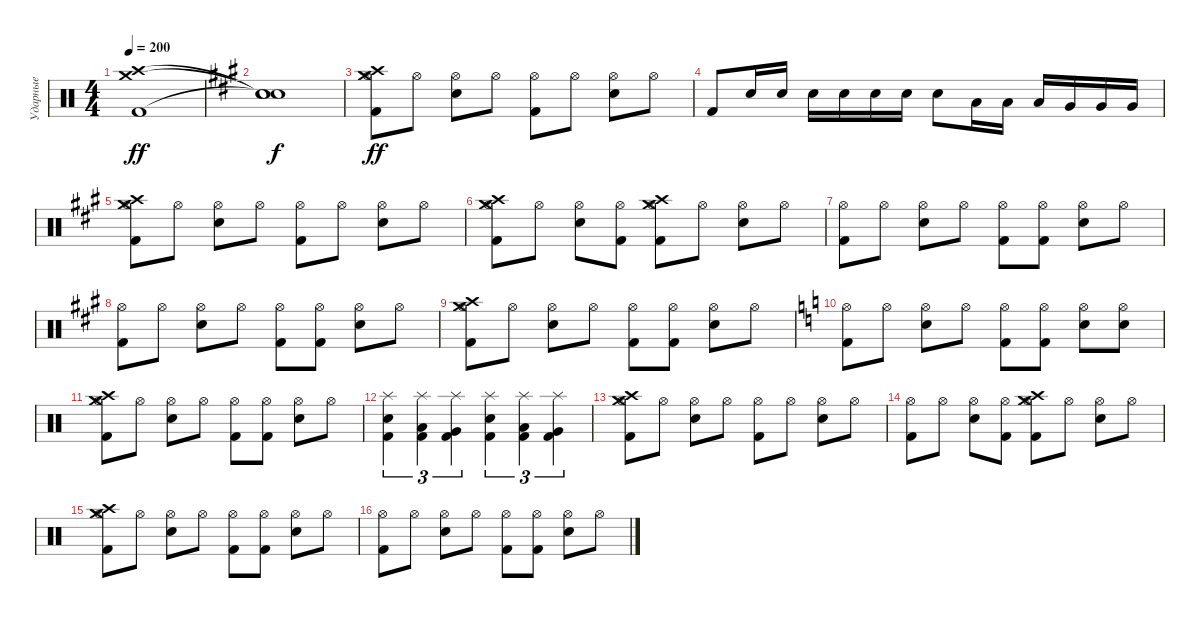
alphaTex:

\track ("Ударные" "Ударные") {instrument percussion}
\staff {score}
\articulation defaults
\ts (4 4)
\tempo 200
\clef neutral
\ks c
("Crash medium (hit)" "Crash high (hit)" "Kick (hit) 2").1{dy ff} |
\ks f#minor
("Snare (hit)"{t} "Snare (hit)"{t} "Snare (hit)"{t}).1{dy f} |
("Crash medium (hit)" "Crash high (hit)" "Hi-Hat (open)" "Kick (hit) 2").8{dy ff} "Hi-Hat (open)".8 ("Hi-Hat (open)" "Electric Snare (hit)").8 "Hi-Hat (open)".8 ("Hi-Hat (open)" "Kick (hit) 2").8 "Hi-Hat (open)".8 ("Hi-Hat (open)" "Electric Snare (hit)").8 "Hi-Hat (open)".8 |
"Kick (hit) 2".8 "Electric Snare (hit)".16 "Electric Snare (hit)".16 "Electric Snare (hit)".16 "Electric Snare (hit)".16 "Electric Snare (hit)".16 "Electric Snare (hit)".16 "Electric Snare (hit)".8 "Low Tom (hit)".16 "Low Tom (hit)".16 "Low Tom (hit)".16 "Very Low Tom (hit)".16 "Very Low Tom (hit)".16 "Very Low Tom (hit)".16 |
("Crash medium (hit)" "Crash high (hit)" "Hi-Hat (open)" "Kick (hit) 2").8 "Hi-Hat (open)".8 ("Hi-Hat (open)" "Electric Snare (hit)").8 "Hi-Hat (open)".8 ("Hi-Hat (open)" "Kick (hit) 2").8 "Hi-Hat (open)".8 ("Hi-Hat (open)" "Electric Snare (hit)").8 "Hi-Hat (open)".8 |
("Crash medium (hit)" "Crash high (hit)" "Hi-Hat (open)" "Kick (hit) 2").8 "Hi-Hat (open)".8 ("Hi-Hat (open)" "Electric Snare (hit)").8 ("Hi-Hat (open)" "Kick (hit) 2").8 ("Crash medium (hit)" "Crash high (hit)" "Hi-Hat (open)" "Kick (hit) 2").8 "Hi-Hat (open)".8 ("Hi-Hat (open)" "Electric Snare (hit)").8 "Hi-Hat (open)".8 |
("Hi-Hat (open)" "Kick (hit) 2").8 "Hi-Hat (open)".8 ("Hi-Hat (open)" "Electric Snare (hit)").8 "Hi-Hat (open)".8 ("Hi-Hat (open)" "Kick (hit) 2").8 ("Hi-Hat (open)" "Kick (hit) 2").8 ("Hi-Hat (open)" "Electric Snare (hit)").8 "Hi-Hat (open)".8 |
("Hi-Hat (open)" "Kick (hit) 2").8 "Hi-Hat (open)".8 ("Hi-Hat (open)" "Electric Snare (hit)").8 "Hi-Hat (open)".8 ("Hi-Hat (open)" "Kick (hit) 2").8 ("Hi-Hat (open)" "Kick (hit) 2").8 ("Hi-Hat (open)" "Electric Snare (hit)").8 "Hi-Hat (open)".8 |
("Crash medium (hit)" "Crash high (hit)" "Hi-Hat (open)" "Kick (hit) 2").8 "Hi-Hat (open)".8 ("Hi-Hat (open)" "Electric Snare (hit)").8 "Hi-Hat (open)".8 ("Hi-Hat (open)" "Kick (hit) 2").8 ("Hi-Hat (open)" "Kick (hit) 2").8 ("Hi-Hat (open)" "Electric Snare (hit)").8 "Hi-Hat (open)".8 |
\ks c
("Hi-Hat (open)" "Kick (hit) 2").8 "Hi-Hat (open)".8 ("Hi-Hat (open)" "Electric Snare (hit)").8 "Hi-Hat (open)".8 ("Hi-Hat (open)" "Kick (hit) 2").8 ("Hi-Hat (open)" "Kick (hit) 2").8 ("Hi-Hat (open)" "Electric Snare (hit)").8 ("Hi-Hat (open)" "Electric Snare (hit)").8 |
("Crash high (hit)" "Crash medium (hit)" "Hi-Hat (open)" "Kick (hit) 2").8 "Hi-Hat (open)".8 ("Hi-Hat (open)" "Electric Snare (hit)").8 "Hi-Hat (open)".8 ("Hi-Hat (open)" "Kick (hit) 2").8 ("Hi-Hat (open)" "Kick (hit) 2").8 ("Hi-Hat (open)" "Electric Snare (hit)").8 "Hi-Hat (open)".8 |
("Splash (hit)" "Electric Snare (hit)" "Kick (hit) 2").4{tu (3 2)} ("Splash (hit)" "Low Tom (hit)" "Kick (hit) 2").4{tu (3 2)} ("Splash (hit)" "Very Low Tom (hit)" "Kick (hit) 2").4{tu (3 2)} ("Splash (hit)" "Electric Snare (hit)" "Kick (hit) 2").4{tu (3 2)} ("Splash (hit)" "Low Tom (hit)" "Kick (hit) 2").4{tu (3 2)} ("Splash (hit)" "Very Low Tom (hit)" "Kick (hit) 2").4{tu (3 2)} |
("Crash medium (hit)" "Crash high (hit)" "Hi-Hat (open)" "Kick (hit) 2").8 "Hi-Hat (open)".8 ("Hi-Hat (open)" "Electric Snare (hit)").8 "Hi-Hat (open)".8 ("Hi-Hat (open)" "Kick (hit) 2").8 "Hi-Hat (open)".8 ("Hi-Hat (open)" "Electric Snare (hit)").8 "Hi-Hat (open)".8 |
("Hi-Hat (open)" "Kick (hit) 2").8 "Hi-Hat (open)".8 ("Hi-Hat (open)" "Electric Snare (hit)").8 ("Hi-Hat (open)" "Kick (hit) 2").8 ("Crash medium (hit)" "Crash high (hit)" "Hi-Hat (open)" "Kick (hit) 2").8 "Hi-Hat (open)".8 ("Hi-Hat (open)" "Electric Snare (hit)").8 "Hi-Hat (open)".8 |
("Crash medium (hit)" "Crash high (hit)" "Hi-Hat (open)" "Kick (hit) 2").8 "Hi-Hat (open)".8 ("Hi-Hat (open)" "Electric Snare (hit)").8 "Hi-Hat (open)".8 ("Hi-Hat (open)" "Kick (hit) 2").8 ("Hi-Hat (open)" "Kick (hit) 2").8 ("Hi-Hat (open)" "Electric Snare (hit)").8 "Hi-Hat (open)".8 |
("Hi-Hat (open)" "Kick (hit) 2").8 "Hi-Hat (open)".8 ("Hi-Hat (open)" "Electric Snare (hit)").8 "Hi-Hat (open)".8 ("Hi-Hat (open)" "Kick (hit) 2").8 ("Hi-Hat (open)" "Kick (hit) 2").8 ("Hi-Hat (open)" "Electric Snare (hit)").8 "Hi-Hat (open)".8
